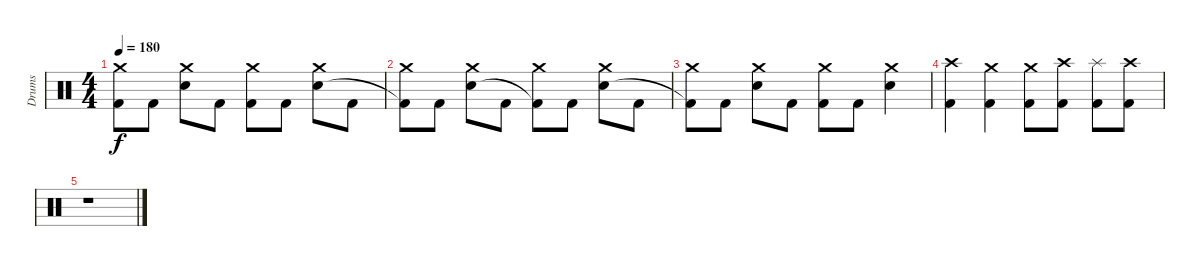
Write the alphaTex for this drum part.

\track ("Drums" "Drums") {instrument percussion}
\staff {score}
\articulation defaults
\ts (4 4)
\tempo 180
\clef neutral
\ks c
("Crash medium (hit)" "Kick (hit) 2"{t}).8{dy f} "Kick (hit) 2".8 ("Crash medium (hit)" "Electric Snare (hit)").8 "Kick (hit) 2".8 ("Crash medium (hit)" "Kick (hit) 2").8 "Kick (hit) 2".8 ("Crash medium (hit)" "Electric Snare (hit)").8 "Kick (hit) 2".8 |
("Crash medium (hit)" "Kick (hit) 2"{t}).8 "Kick (hit) 2".8 ("Crash medium (hit)" "Electric Snare (hit)").8 "Kick (hit) 2".8 ("Crash medium (hit)" "Kick (hit) 2"{t}).8 "Kick (hit) 2".8 ("Crash medium (hit)" "Electric Snare (hit)").8 "Kick (hit) 2".8 |
("Crash medium (hit)" "Kick (hit) 2"{t}).8 "Kick (hit) 2".8 ("Crash medium (hit)" "Electric Snare (hit)").8 "Kick (hit) 2".8 ("Crash medium (hit)" "Kick (hit) 2").8 "Kick (hit) 2".8 ("Crash medium (hit)" "Electric Snare (hit)").4 |
("Crash high (hit)" "Kick (hit) 2").4 ("Crash medium (hit)" "Kick (hit) 2").4 ("Crash medium (hit)" "Kick (hit) 2").8 ("Crash high (hit)" "Kick (hit) 2").8 ("Splash (hit)" "Kick (hit) 2").8 ("Crash high (hit)" "Kick (hit) 2").8 |
r.1
